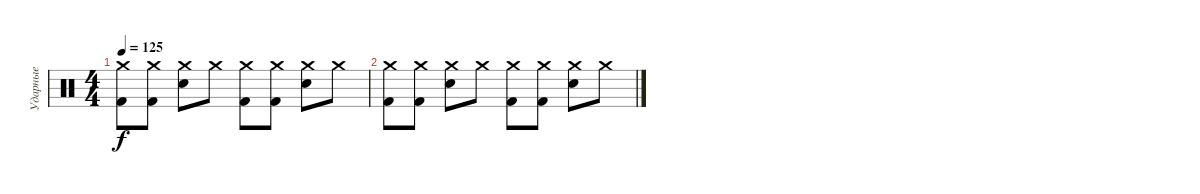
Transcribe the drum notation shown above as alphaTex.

\track ("Ударные" "Ударные") {instrument percussion}
\staff {score}
\articulation defaults
\ts (4 4)
\tempo 125
\clef neutral
\ks c
("Crash medium (hit)" "Kick (hit) 2").8{dy f} ("Crash medium (hit)" "Kick (hit) 2").8 ("Crash medium (hit)" "Snare (hit) 2").8 "Crash medium (hit)".8 ("Crash medium (hit)" "Kick (hit) 2").8 ("Crash medium (hit)" "Kick (hit) 2").8 ("Crash medium (hit)" "Snare (hit) 2").8 "Crash medium (hit)".8 |
("Crash medium (hit)" "Kick (hit) 2").8 ("Crash medium (hit)" "Kick (hit) 2").8 ("Crash medium (hit)" "Snare (hit) 2").8 "Crash medium (hit)".8 ("Crash medium (hit)" "Kick (hit) 2").8 ("Crash medium (hit)" "Kick (hit) 2").8 ("Crash medium (hit)" "Snare (hit) 2").8 "Crash medium (hit)".8
